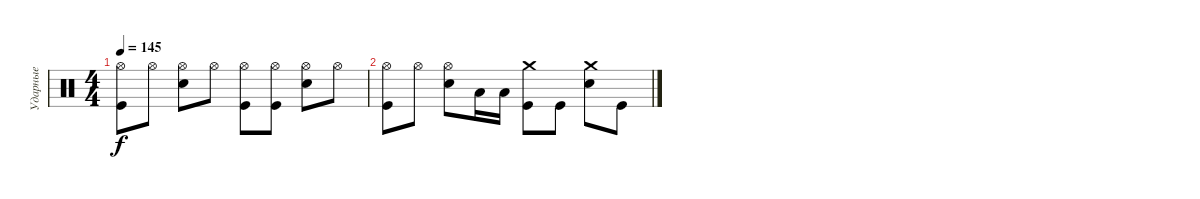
\track ("Ударные" "Ударные") {instrument percussion}
\staff {score}
\articulation defaults
\ts (4 4)
\tempo 145
\clef neutral
\ks c
("Hi-Hat (open)" "Kick (hit)").8{dy f} "Hi-Hat (open)".8 ("Hi-Hat (open)" "Electric Snare (hit)").8 "Hi-Hat (open)".8 ("Hi-Hat (open)" "Kick (hit)").8 ("Hi-Hat (open)" "Kick (hit)").8 ("Hi-Hat (open)" "Electric Snare (hit)").8 "Hi-Hat (open)".8 |
("Hi-Hat (open)" "Kick (hit)").8 "Hi-Hat (open)".8 ("Hi-Hat (open)" "Electric Snare (hit)").8 "Low Tom (hit)".16 "Low Tom (hit)".16 ("Crash medium (hit)" "Kick (hit)").8 "Kick (hit)".8 ("Crash medium (hit)" "Electric Snare (hit)").8 "Kick (hit)".8
